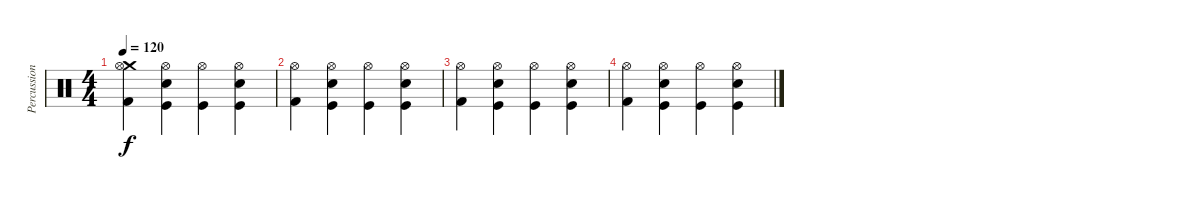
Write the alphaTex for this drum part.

\track ("Percussion" "Percussion") {instrument percussion}
\staff {score}
\articulation defaults
\ts (4 4)
\tempo 120
\clef neutral
\ks c
("Crash medium (hit)" "Kick (hit) 2" "Hi-Hat (open)").4{dy f} ("Snare (hit) 2" "Kick (hit)" "Hi-Hat (open)").4 ("Kick (hit)" "Hi-Hat (open)").4 ("Snare (hit) 2" "Kick (hit)" "Hi-Hat (open)").4 |
("Kick (hit) 2" "Hi-Hat (open)").4 ("Snare (hit) 2" "Kick (hit)" "Hi-Hat (open)").4 ("Kick (hit)" "Hi-Hat (open)").4 ("Snare (hit) 2" "Kick (hit)" "Hi-Hat (open)").4 |
("Kick (hit) 2" "Hi-Hat (open)").4 ("Snare (hit) 2" "Kick (hit)" "Hi-Hat (open)").4 ("Kick (hit)" "Hi-Hat (open)").4 ("Snare (hit) 2" "Kick (hit)" "Hi-Hat (open)").4 |
("Kick (hit) 2" "Hi-Hat (open)").4 ("Snare (hit) 2" "Kick (hit)" "Hi-Hat (open)").4 ("Kick (hit)" "Hi-Hat (open)").4 ("Snare (hit) 2" "Kick (hit)" "Hi-Hat (open)").4
